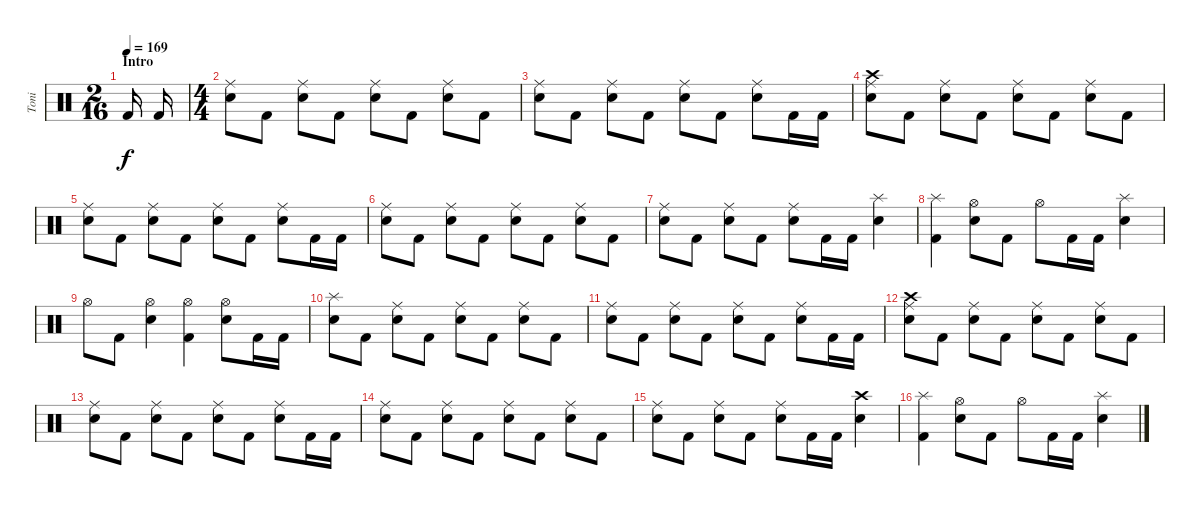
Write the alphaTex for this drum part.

\track ("Toni" "Toni") {instrument percussion}
\staff {score}
\articulation defaults
\ts (2 16)
\section ("" "Intro")
\tempo 169
\clef neutral
\ks c "Kick (hit) 2".16{dy f} "Kick (hit) 2".16
|
\ts (4 4)
("Ride (middle)" "Electric Snare (hit)").8 "Kick (hit) 2".8 ("Ride (middle)" "Electric Snare (hit)").8 "Kick (hit) 2".8 ("Ride (middle)" "Electric Snare (hit)").8 "Kick (hit) 2".8 ("Ride (middle)" "Electric Snare (hit)").8 "Kick (hit) 2".8 |
("Ride (middle)" "Electric Snare (hit)").8 "Kick (hit) 2".8 ("Ride (middle)" "Electric Snare (hit)").8 "Kick (hit) 2".8 ("Ride (middle)" "Electric Snare (hit)").8 "Kick (hit) 2".8 ("Ride (middle)" "Electric Snare (hit)").8 "Kick (hit) 2".16 "Kick (hit) 2".16 |
("Ride (middle)" "Crash high (hit)" "Electric Snare (hit)").8 "Kick (hit) 2".8 ("Ride (middle)" "Electric Snare (hit)").8 "Kick (hit) 2".8 ("Ride (middle)" "Electric Snare (hit)").8 "Kick (hit) 2".8 ("Ride (middle)" "Electric Snare (hit)").8 "Kick (hit) 2".8 |
("Ride (middle)" "Electric Snare (hit)").8 "Kick (hit) 2".8 ("Ride (middle)" "Electric Snare (hit)").8 "Kick (hit) 2".8 ("Ride (middle)" "Electric Snare (hit)").8 "Kick (hit) 2".8 ("Ride (middle)" "Electric Snare (hit)").8 "Kick (hit) 2".16 "Kick (hit) 2".16 |
("Ride (middle)" "Electric Snare (hit)").8 "Kick (hit) 2".8 ("Ride (middle)" "Electric Snare (hit)").8 "Kick (hit) 2".8 ("Ride (middle)" "Electric Snare (hit)").8 "Kick (hit) 2".8 ("Ride (middle)" "Electric Snare (hit)").8 "Kick (hit) 2".8 |
("Ride (middle)" "Electric Snare (hit)").8 "Kick (hit) 2".8 ("Ride (middle)" "Electric Snare (hit)").8 "Kick (hit) 2".8 ("Ride (middle)" "Electric Snare (hit)").8 "Kick (hit) 2".16 "Kick (hit) 2".16 ("Splash (hit)" "Electric Snare (hit)").4 |
("Splash (hit)" "Kick (hit) 2").4 ("Hi-Hat (open)" "Electric Snare (hit)").8 "Kick (hit) 2".8 "Hi-Hat (open)".8 "Kick (hit) 2".16 "Kick (hit) 2".16 ("Splash (hit)" "Electric Snare (hit)").4 |
"Hi-Hat (open)".8 "Kick (hit) 2".8 ("Hi-Hat (open)" "Electric Snare (hit)").4 ("Hi-Hat (open)" "Kick (hit) 2").4 ("Hi-Hat (open)" "Electric Snare (hit)").8 "Kick (hit) 2".16 "Kick (hit) 2".16 |
("Splash (hit)" "Electric Snare (hit)").8 "Kick (hit) 2".8 ("Ride (middle)" "Electric Snare (hit)").8 "Kick (hit) 2".8 ("Ride (middle)" "Electric Snare (hit)").8 "Kick (hit) 2".8 ("Ride (middle)" "Electric Snare (hit)").8 "Kick (hit) 2".8 |
("Ride (middle)" "Electric Snare (hit)").8 "Kick (hit) 2".8 ("Ride (middle)" "Electric Snare (hit)").8 "Kick (hit) 2".8 ("Ride (middle)" "Electric Snare (hit)").8 "Kick (hit) 2".8 ("Ride (middle)" "Electric Snare (hit)").8 "Kick (hit) 2".16 "Kick (hit) 2".16 |
("Ride (middle)" "Crash high (hit)" "Electric Snare (hit)").8 "Kick (hit) 2".8 ("Ride (middle)" "Electric Snare (hit)").8 "Kick (hit) 2".8 ("Ride (middle)" "Electric Snare (hit)").8 "Kick (hit) 2".8 ("Ride (middle)" "Electric Snare (hit)").8 "Kick (hit) 2".8 |
("Ride (middle)" "Electric Snare (hit)").8 "Kick (hit) 2".8 ("Ride (middle)" "Electric Snare (hit)").8 "Kick (hit) 2".8 ("Ride (middle)" "Electric Snare (hit)").8 "Kick (hit) 2".8 ("Ride (middle)" "Electric Snare (hit)").8 "Kick (hit) 2".16 "Kick (hit) 2".16 |
("Ride (middle)" "Electric Snare (hit)").8 "Kick (hit) 2".8 ("Ride (middle)" "Electric Snare (hit)").8 "Kick (hit) 2".8 ("Ride (middle)" "Electric Snare (hit)").8 "Kick (hit) 2".8 ("Ride (middle)" "Electric Snare (hit)").8 "Kick (hit) 2".8 |
("Ride (middle)" "Electric Snare (hit)").8 "Kick (hit) 2".8 ("Ride (middle)" "Electric Snare (hit)").8 "Kick (hit) 2".8 ("Ride (middle)" "Electric Snare (hit)").8 "Kick (hit) 2".16 "Kick (hit) 2".16 ("Crash high (hit)" "Electric Snare (hit)").4 |
("Splash (hit)" "Kick (hit) 2").4 ("Hi-Hat (open)" "Electric Snare (hit)").8 "Kick (hit) 2".8 "Hi-Hat (open)".8 "Kick (hit) 2".16 "Kick (hit) 2".16 ("Splash (hit)" "Electric Snare (hit)").4
